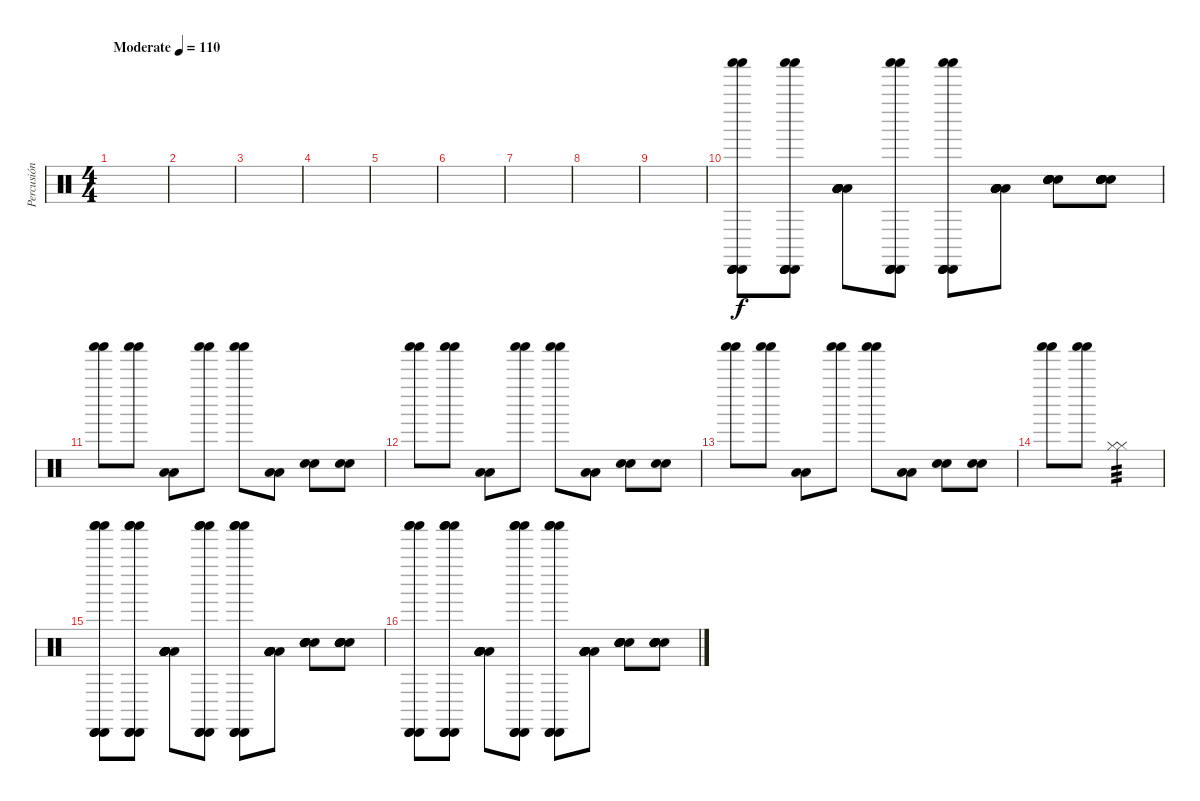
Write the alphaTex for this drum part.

\track ("Percusión" "Percusión") {instrument percussion}
\staff {score}
\articulation defaults
\ts (4 4)
\tempo (110 "Moderate")
\clef neutral
\ks c
|
|
|
|
|
|
|
|
|
("Cabasa (hit)" "Shaker (hit)" "Shaker (hit)" "Cabasa (hit)" "Cabasa (hit)" "Cabasa (hit)").8 ("Cabasa (hit)" "Shaker (hit)" "Shaker (hit)" "Cabasa (hit)" "Cabasa (hit)" "Cabasa (hit)").8 ("Low Floor Tom (hit)" "Low Floor Tom (hit)" "Low Floor Tom (hit)" "Low Floor Tom (hit)" "Low Floor Tom (hit)" "Low Floor Tom (hit)").8 ("Cabasa (hit)" "Shaker (hit)" "Shaker (hit)" "Cabasa (hit)" "Cabasa (hit)" "Cabasa (hit)").8 ("Cabasa (hit)" "Shaker (hit)" "Shaker (hit)" "Cabasa (hit)" "Cabasa (hit)" "Cabasa (hit)").8 ("Low Floor Tom (hit)" "Low Floor Tom (hit)" "Low Floor Tom (hit)" "Low Floor Tom (hit)" "Low Floor Tom (hit)" "Low Floor Tom (hit)").8 ("Snare (hit) 2" "Snare (hit) 2" "Snare (hit) 2" "Snare (hit) 2" "Snare (hit) 2" "Snare (hit) 2").8 ("Electric Snare (hit)" "Electric Snare (hit)" "Electric Snare (hit)" "Electric Snare (hit)" "Electric Snare (hit)" "Electric Snare (hit)").8 |
("Shaker (hit)" "Shaker (hit)").8 ("Shaker (hit)" "Shaker (hit)").8 ("Low Floor Tom (hit)" "Low Floor Tom (hit)").8 ("Shaker (hit)" "Shaker (hit)").8 ("Shaker (hit)" "Shaker (hit)").8 ("Low Floor Tom (hit)" "Low Floor Tom (hit)").8 ("Snare (hit) 2" "Snare (hit) 2").8 ("Electric Snare (hit)" "Electric Snare (hit)").8 |
("Shaker (hit)" "Shaker (hit)").8 ("Shaker (hit)" "Shaker (hit)").8 ("Low Floor Tom (hit)" "Low Floor Tom (hit)").8 ("Shaker (hit)" "Shaker (hit)").8 ("Shaker (hit)" "Shaker (hit)").8 ("Low Floor Tom (hit)" "Low Floor Tom (hit)").8 ("Snare (hit) 2" "Snare (hit) 2").8 ("Electric Snare (hit)" "Electric Snare (hit)").8 |
("Shaker (hit)" "Shaker (hit)").8 ("Shaker (hit)" "Shaker (hit)").8 ("Low Floor Tom (hit)" "Low Floor Tom (hit)").8 ("Shaker (hit)" "Shaker (hit)").8 ("Shaker (hit)" "Shaker (hit)").8 ("Low Floor Tom (hit)" "Low Floor Tom (hit)").8 ("Snare (hit) 2" "Snare (hit) 2").8 ("Electric Snare (hit)" "Electric Snare (hit)").8 |
("Shaker (hit)" "Shaker (hit)").8 ("Shaker (hit)" "Shaker (hit)").8 ("Hi-Hat (closed)" "Hi-Hat (closed)").4{tp 3} |
("Shaker (hit)" "Shaker (hit)" "Shaker (hit)" "Cabasa (hit)" "Cabasa (hit)" "Cabasa (hit)").8 ("Shaker (hit)" "Shaker (hit)" "Shaker (hit)" "Cabasa (hit)" "Cabasa (hit)" "Cabasa (hit)").8 ("Low Floor Tom (hit)" "Low Floor Tom (hit)" "Low Floor Tom (hit)" "Low Floor Tom (hit)" "Low Floor Tom (hit)" "Low Floor Tom (hit)").8 ("Shaker (hit)" "Shaker (hit)" "Shaker (hit)" "Cabasa (hit)" "Cabasa (hit)" "Cabasa (hit)").8 ("Shaker (hit)" "Shaker (hit)" "Shaker (hit)" "Cabasa (hit)" "Cabasa (hit)" "Cabasa (hit)").8 ("Low Floor Tom (hit)" "Low Floor Tom (hit)" "Low Floor Tom (hit)" "Low Floor Tom (hit)" "Low Floor Tom (hit)" "Low Floor Tom (hit)").8 ("Snare (hit) 2" "Snare (hit) 2" "Snare (hit) 2" "Snare (hit) 2" "Snare (hit) 2" "Snare (hit) 2").8 ("Electric Snare (hit)" "Electric Snare (hit)" "Electric Snare (hit)" "Electric Snare (hit)" "Electric Snare (hit)" "Electric Snare (hit)").8 |
("Shaker (hit)" "Shaker (hit)" "Shaker (hit)" "Cabasa (hit)" "Cabasa (hit)" "Cabasa (hit)").8 ("Shaker (hit)" "Shaker (hit)" "Shaker (hit)" "Cabasa (hit)" "Cabasa (hit)" "Cabasa (hit)").8 ("Low Floor Tom (hit)" "Low Floor Tom (hit)" "Low Floor Tom (hit)" "Low Floor Tom (hit)" "Low Floor Tom (hit)" "Low Floor Tom (hit)").8 ("Shaker (hit)" "Shaker (hit)" "Shaker (hit)" "Cabasa (hit)" "Cabasa (hit)" "Cabasa (hit)").8 ("Shaker (hit)" "Shaker (hit)" "Shaker (hit)" "Cabasa (hit)" "Cabasa (hit)" "Cabasa (hit)").8 ("Low Floor Tom (hit)" "Low Floor Tom (hit)" "Low Floor Tom (hit)" "Low Floor Tom (hit)" "Low Floor Tom (hit)" "Low Floor Tom (hit)").8 ("Snare (hit) 2" "Snare (hit) 2" "Snare (hit) 2" "Snare (hit) 2" "Snare (hit) 2" "Snare (hit) 2").8 ("Electric Snare (hit)" "Electric Snare (hit)" "Electric Snare (hit)" "Electric Snare (hit)" "Electric Snare (hit)" "Electric Snare (hit)").8
